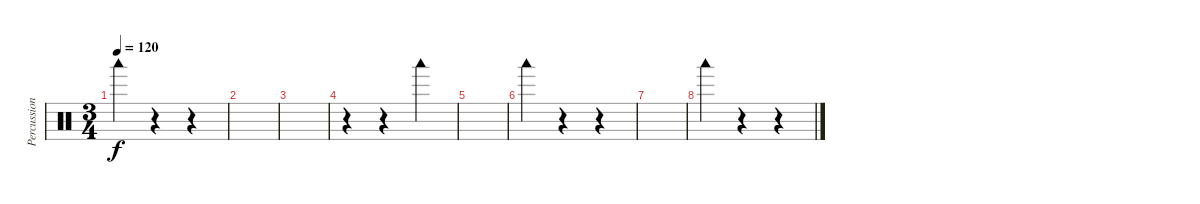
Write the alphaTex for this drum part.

\track ("Percussion" "Percussion") {instrument percussion}
\staff {score}
\articulation defaults
\ts (3 4)
\tempo 120
\clef neutral
\ks c "Woodblock low (hit)".4{dy f}
r.4 r.4 |
|
|
r.4 r.4 "Woodblock low (hit)".4 |
|
"Woodblock low (hit)".4 r.4 r.4 |
|
"Woodblock low (hit)".4 r.4 r.4
